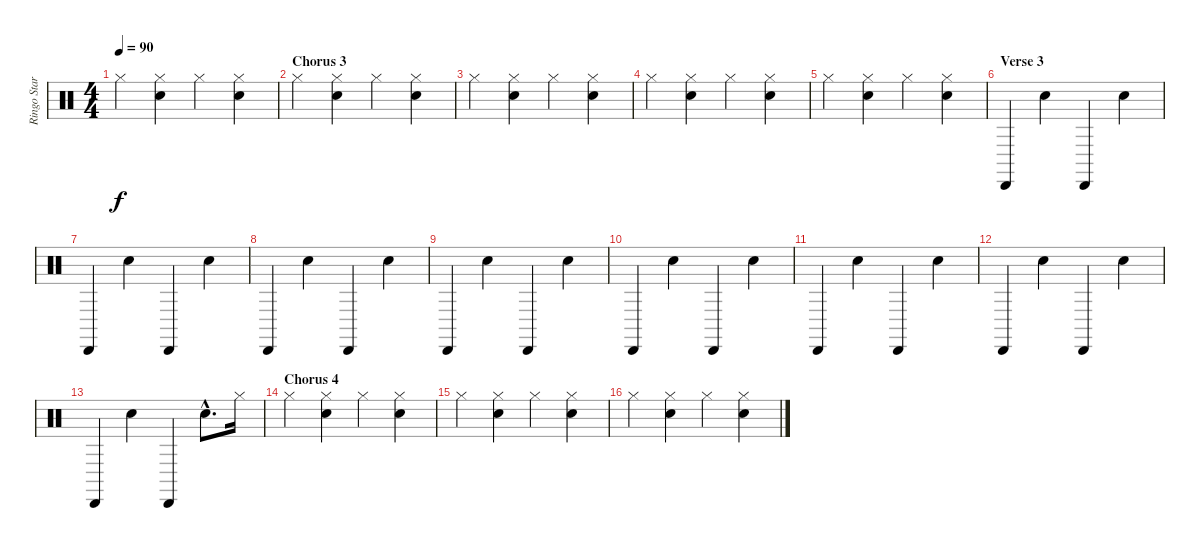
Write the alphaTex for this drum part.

\track ("Ringo Starr" "Ringo Star") {instrument percussion}
\staff {score}
\articulation defaults
\ts (4 4)
\tempo 90
\clef neutral
\ks c "Hi-Hat (closed)".4{dy f}
("Hi-Hat (closed)" "Snare (hit) 2").4 "Hi-Hat (closed)".4 ("Hi-Hat (closed)" "Snare (hit) 2").4 |
\section ("" "Chorus 3")
"Hi-Hat (closed)".4 ("Hi-Hat (closed)" "Snare (hit) 2").4 "Hi-Hat (closed)".4 ("Hi-Hat (closed)" "Snare (hit) 2").4 |
"Hi-Hat (closed)".4 ("Hi-Hat (closed)" "Snare (hit) 2").4 "Hi-Hat (closed)".4 ("Hi-Hat (closed)" "Snare (hit) 2").4 |
"Hi-Hat (closed)".4 ("Hi-Hat (closed)" "Snare (hit) 2").4 "Hi-Hat (closed)".4 ("Hi-Hat (closed)" "Snare (hit) 2").4 |
"Hi-Hat (closed)".4 ("Hi-Hat (closed)" "Snare (hit) 2").4 "Hi-Hat (closed)".4 ("Hi-Hat (closed)" "Snare (hit) 2").4 |
\section ("" "Verse 3")
"Cabasa (hit)".4 "Snare (hit) 2".4 "Cabasa (hit)".4 "Snare (hit) 2".4 |
"Cabasa (hit)".4 "Snare (hit) 2".4 "Cabasa (hit)".4 "Snare (hit) 2".4 |
"Cabasa (hit)".4 "Snare (hit) 2".4 "Cabasa (hit)".4 "Snare (hit) 2".4 |
"Cabasa (hit)".4 "Snare (hit) 2".4 "Cabasa (hit)".4 "Snare (hit) 2".4 |
"Cabasa (hit)".4 "Snare (hit) 2".4 "Cabasa (hit)".4 "Snare (hit) 2".4 |
"Cabasa (hit)".4 "Snare (hit) 2".4 "Cabasa (hit)".4 "Snare (hit) 2".4 |
"Cabasa (hit)".4 "Snare (hit) 2".4 "Cabasa (hit)".4 "Snare (hit) 2".4 |
"Cabasa (hit)".4 "Snare (hit) 2".4 "Cabasa (hit)".4 "Snare (hit) 2"{hac}.8{d} "Hi-Hat (closed)".16 |
\section ("" "Chorus 4")
"Hi-Hat (closed)".4 ("Hi-Hat (closed)" "Snare (hit) 2").4 "Hi-Hat (closed)".4 ("Hi-Hat (closed)" "Snare (hit) 2").4 |
"Hi-Hat (closed)".4 ("Hi-Hat (closed)" "Snare (hit) 2").4 "Hi-Hat (closed)".4 ("Hi-Hat (closed)" "Snare (hit) 2").4 |
"Hi-Hat (closed)".4 ("Hi-Hat (closed)" "Snare (hit) 2").4 "Hi-Hat (closed)".4 ("Hi-Hat (closed)" "Snare (hit) 2").4
